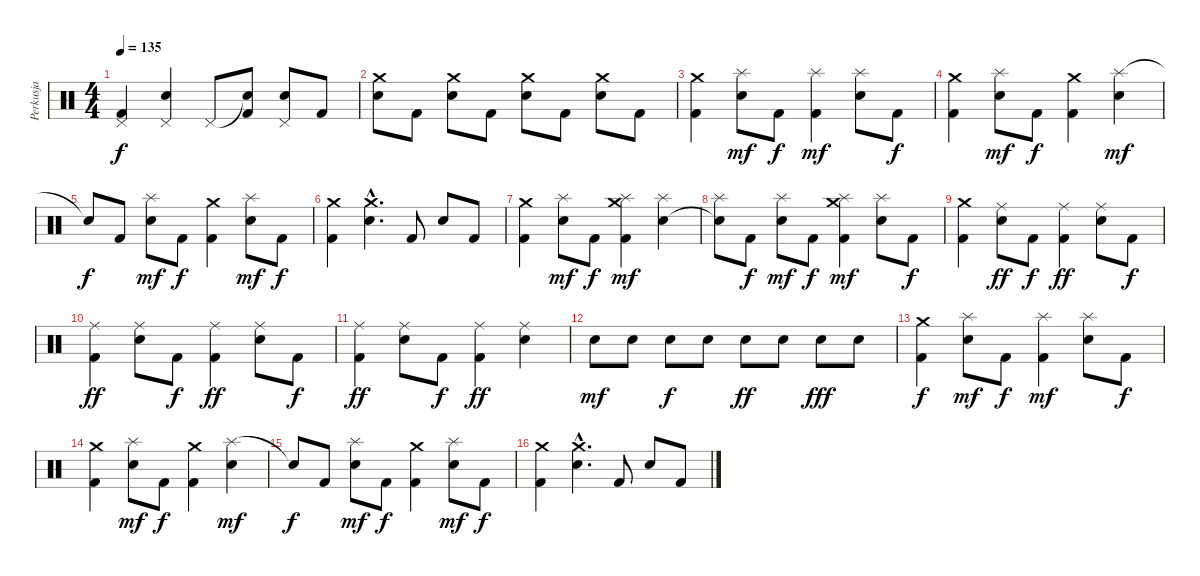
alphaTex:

\track ("Perkusja" "Perkusja") {instrument percussion}
\staff {score}
\articulation defaults
\ts (4 4)
\tempo 135
\clef neutral
\ks c
("Pedal Hi-Hat (hit)" "Kick (hit) 2").4{dy f} ("Pedal Hi-Hat (hit)" "Snare (hit) 2").4 "Pedal Hi-Hat (hit)".8 ("Snare (hit)"{t} "Kick (hit) 2").8 ("Pedal Hi-Hat (hit)" "Snare (hit) 2").8 "Kick (hit) 2".8 |
("Crash medium (hit)" "Snare (hit) 2").8 "Kick (hit) 2".8 ("Crash medium (hit)" "Snare (hit) 2").8 "Kick (hit) 2".8 ("Crash medium (hit)" "Snare (hit) 2").8 "Kick (hit) 2".8 ("Crash medium (hit)" "Snare (hit) 2").8 "Kick (hit) 2".8 |
("Crash medium (hit)" "Kick (hit) 2").4 ("Splash (hit)" "Snare (hit) 2").8{dy mf} "Kick (hit) 2".8{dy f} ("Splash (hit)" "Kick (hit) 2").4{dy mf} ("Splash (hit)" "Snare (hit) 2").8 "Kick (hit) 2".8{dy f} |
("Crash medium (hit)" "Kick (hit) 2").4 ("Splash (hit)" "Snare (hit) 2").8{dy mf} "Kick (hit) 2".8{dy f} ("Crash medium (hit)" "Kick (hit) 2").4 ("Splash (hit)" "Snare (hit) 2").4{dy mf} |
"Snare (hit)"{t}.8{dy f} "Kick (hit) 2".8 ("Splash (hit)" "Snare (hit) 2").8{dy mf} "Kick (hit) 2".8{dy f} ("Crash medium (hit)" "Kick (hit) 2").4 ("Splash (hit)" "Snare (hit) 2").8{dy mf} "Kick (hit) 2".8{dy f} |
("Crash medium (hit)" "Kick (hit) 2").4 ("Crash medium (hit)"{hac} "Snare (hit) 2"{hac}).4{d} "Kick (hit) 2".8 "Snare (hit) 2".8 "Kick (hit) 2".8 |
("Crash medium (hit)" "Kick (hit) 2").4 ("Splash (hit)" "Snare (hit) 2").8{dy mf} "Kick (hit) 2".8{dy f} ("Splash (hit)" "Crash medium (hit)" "Kick (hit) 2").4{dy mf} ("Splash (hit)" "Snare (hit) 2").4 |
("Splash (hit)" "Snare (hit)"{t}).8 "Kick (hit) 2".8{dy f} ("Splash (hit)" "Snare (hit) 2").8{dy mf} "Kick (hit) 2".8{dy f} ("Splash (hit)" "Crash medium (hit)" "Kick (hit) 2").4{dy mf} ("Splash (hit)" "Snare (hit) 2").8 "Kick (hit) 2".8{dy f} |
("Crash medium (hit)" "Kick (hit) 2").4 ("Ride (middle)" "Snare (hit) 2").8{dy ff} "Kick (hit) 2".8{dy f} ("Ride (middle)" "Kick (hit) 2").4{dy ff} ("Ride (middle)" "Snare (hit) 2").8 "Kick (hit) 2".8{dy f} |
("Ride (middle)" "Kick (hit) 2").4{dy ff} ("Ride (middle)" "Snare (hit) 2").8 "Kick (hit) 2".8{dy f} ("Ride (middle)" "Kick (hit) 2").4{dy ff} ("Ride (middle)" "Snare (hit) 2").8 "Kick (hit) 2".8{dy f} |
("Ride (middle)" "Kick (hit) 2").4{dy ff} ("Ride (middle)" "Snare (hit) 2").8 "Kick (hit) 2".8{dy f} ("Ride (middle)" "Kick (hit) 2").4{dy ff} ("Ride (middle)" "Snare (hit) 2").4 |
"Snare (hit) 2".8{dy mf} "Snare (hit) 2".8 "Snare (hit) 2".8{dy f} "Snare (hit) 2".8 "Snare (hit) 2".8{dy ff} "Snare (hit) 2".8 "Snare (hit) 2".8{dy fff} "Snare (hit) 2".8 |
("Crash medium (hit)" "Kick (hit) 2").4{dy f} ("Splash (hit)" "Snare (hit) 2").8{dy mf} "Kick (hit) 2".8{dy f} ("Splash (hit)" "Kick (hit) 2").4{dy mf} ("Splash (hit)" "Snare (hit) 2").8 "Kick (hit) 2".8{dy f} |
("Crash medium (hit)" "Kick (hit) 2").4 ("Splash (hit)" "Snare (hit) 2").8{dy mf} "Kick (hit) 2".8{dy f} ("Crash medium (hit)" "Kick (hit) 2").4 ("Splash (hit)" "Snare (hit) 2").4{dy mf} |
"Snare (hit)"{t}.8{dy f} "Kick (hit) 2".8 ("Splash (hit)" "Snare (hit) 2").8{dy mf} "Kick (hit) 2".8{dy f} ("Crash medium (hit)" "Kick (hit) 2").4 ("Splash (hit)" "Snare (hit) 2").8{dy mf} "Kick (hit) 2".8{dy f} |
("Crash medium (hit)" "Kick (hit) 2").4 ("Crash medium (hit)"{hac} "Snare (hit) 2"{hac}).4{d} "Kick (hit) 2".8 "Snare (hit) 2".8 "Kick (hit) 2".8
